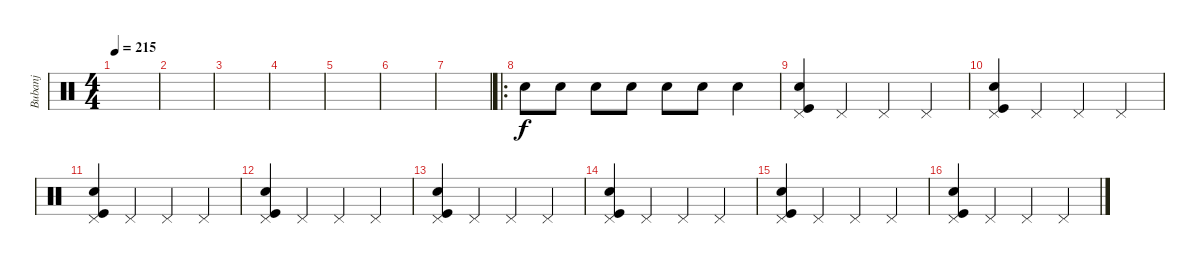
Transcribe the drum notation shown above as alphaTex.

\track ("Bubanj" "Bubanj") {instrument percussion}
\staff {score}
\articulation defaults
\ts (4 4)
\tempo 215
\clef neutral
\ks c
|
|
|
|
|
|
|
\ro "Snare (hit) 2".8 "Snare (hit) 2".8 "Snare (hit) 2".8 "Snare (hit) 2".8 "Snare (hit) 2".8 "Snare (hit) 2".8 "Snare (hit) 2".4
|
("Kick (hit)" "Pedal Hi-Hat (hit)" "Snare (hit) 2").4 "Pedal Hi-Hat (hit)".4 "Pedal Hi-Hat (hit)".4 "Pedal Hi-Hat (hit)".4 |
("Kick (hit)" "Pedal Hi-Hat (hit)" "Snare (hit) 2").4 "Pedal Hi-Hat (hit)".4 "Pedal Hi-Hat (hit)".4 "Pedal Hi-Hat (hit)".4 |
("Kick (hit)" "Pedal Hi-Hat (hit)" "Snare (hit) 2").4 "Pedal Hi-Hat (hit)".4 "Pedal Hi-Hat (hit)".4 "Pedal Hi-Hat (hit)".4 |
("Kick (hit)" "Pedal Hi-Hat (hit)" "Snare (hit) 2").4 "Pedal Hi-Hat (hit)".4 "Pedal Hi-Hat (hit)".4 "Pedal Hi-Hat (hit)".4 |
("Kick (hit)" "Pedal Hi-Hat (hit)" "Snare (hit) 2").4 "Pedal Hi-Hat (hit)".4 "Pedal Hi-Hat (hit)".4 "Pedal Hi-Hat (hit)".4 |
("Kick (hit)" "Pedal Hi-Hat (hit)" "Snare (hit) 2").4 "Pedal Hi-Hat (hit)".4 "Pedal Hi-Hat (hit)".4 "Pedal Hi-Hat (hit)".4 |
("Kick (hit)" "Pedal Hi-Hat (hit)" "Snare (hit) 2").4 "Pedal Hi-Hat (hit)".4 "Pedal Hi-Hat (hit)".4 "Pedal Hi-Hat (hit)".4 |
("Kick (hit)" "Pedal Hi-Hat (hit)" "Snare (hit) 2").4 "Pedal Hi-Hat (hit)".4 "Pedal Hi-Hat (hit)".4 "Pedal Hi-Hat (hit)".4
